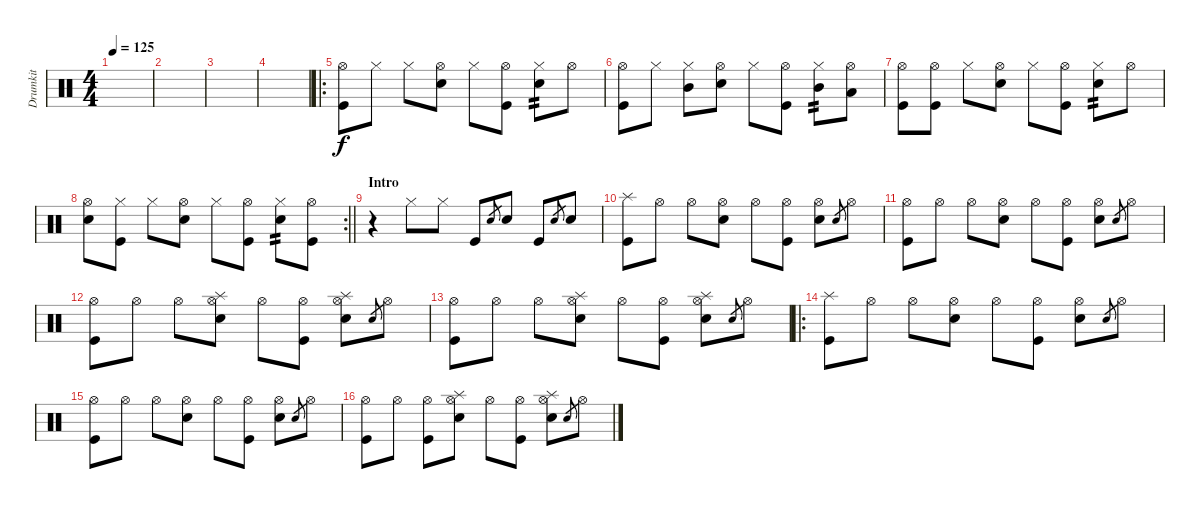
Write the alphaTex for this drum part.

\track ("Drumkit" "Drumkit") {instrument percussion}
\staff {score}
\articulation defaults
\ts (4 4)
\tempo 125
\clef neutral
\ks c
|
|
|
|
\ro
("Hi-Hat (open)" "Kick (hit)").8 "Hi-Hat (closed)".8 "Hi-Hat (closed)".8 ("Hi-Hat (open)" "Snare (hit) 2").8 "Hi-Hat (closed)".8 ("Hi-Hat (open)" "Kick (hit)").8 ("Hi-Hat (closed)" "Snare (hit) 2").8{tp 2} "Hi-Hat (open)".8 |
("Hi-Hat (open)" "Kick (hit)").8 "Hi-Hat (closed)".8 ("Hi-Hat (closed)" "Mid Tom (hit)").8 ("Hi-Hat (open)" "Snare (hit) 2").8 "Hi-Hat (closed)".8 ("Hi-Hat (open)" "Kick (hit)").8 ("Hi-Hat (closed)" "Mid Tom (hit)").8{tp 2} ("Hi-Hat (open)" "Low Tom (hit)").8 |
("Hi-Hat (open)" "Kick (hit)").8 ("Hi-Hat (open)" "Kick (hit)").8 "Hi-Hat (closed)".8 ("Hi-Hat (open)" "Snare (hit) 2").8 "Hi-Hat (closed)".8 ("Hi-Hat (open)" "Kick (hit)").8 ("Hi-Hat (closed)" "Snare (hit) 2").8{tp 2} "Hi-Hat (open)".8 |
\rc 2
\barLineRight lightlight
("Hi-Hat (open)" "Snare (hit) 2").8 ("Hi-Hat (closed)" "Kick (hit)").8 "Hi-Hat (closed)".8 ("Hi-Hat (open)" "Snare (hit) 2").8 "Hi-Hat (closed)".8 ("Hi-Hat (open)" "Kick (hit)").8 ("Hi-Hat (closed)" "Snare (hit) 2").8{tp 2} ("Hi-Hat (open)" "Kick (hit)").8 |
\section ("" "Intro")
r.4 "Hi-Hat (closed)".8 "Hi-Hat (closed)".8 "Kick (hit)".8 "Snare (hit)".8{gr} "Snare (hit) 2".8 "Kick (hit)".8 "Snare (hit)".8{gr} "Snare (hit) 2".8 |
("Splash (hit)" "Kick (hit)").8 "Hi-Hat (open)".8 "Hi-Hat (open)".8 ("Snare (hit) 2" "Hi-Hat (open)").8 "Hi-Hat (open)".8 ("Kick (hit)" "Hi-Hat (open)").8 ("Snare (hit) 2" "Hi-Hat (open)").8 "Snare (hit)".8{gr} "Hi-Hat (open)".8 |
("Kick (hit)" "Hi-Hat (open)").8 "Hi-Hat (open)".8 "Hi-Hat (open)".8 ("Snare (hit) 2" "Hi-Hat (open)").8 "Hi-Hat (open)".8 ("Kick (hit)" "Hi-Hat (open)").8 ("Snare (hit) 2" "Hi-Hat (open)").8 "Snare (hit)".8{gr} "Hi-Hat (open)".8 |
("Kick (hit)" "Hi-Hat (open)").8 "Hi-Hat (open)".8 "Hi-Hat (open)".8 ("Snare (hit) 2" "Hi-Hat (open)" "Splash (hit)").8 "Hi-Hat (open)".8 ("Kick (hit)" "Hi-Hat (open)").8 ("Snare (hit) 2" "Hi-Hat (open)" "Splash (hit)").8 "Snare (hit)".8{gr} "Hi-Hat (open)".8 |
("Kick (hit)" "Hi-Hat (open)").8 "Hi-Hat (open)".8 "Hi-Hat (open)".8 ("Snare (hit) 2" "Hi-Hat (open)" "Splash (hit)").8 "Hi-Hat (open)".8 ("Kick (hit)" "Hi-Hat (open)").8 ("Snare (hit) 2" "Hi-Hat (open)" "Splash (hit)").8 "Snare (hit)".8{gr} "Hi-Hat (open)".8 |
\ro
("Splash (hit)" "Kick (hit)").8 "Hi-Hat (open)".8 "Hi-Hat (open)".8 ("Snare (hit) 2" "Hi-Hat (open)").8 "Hi-Hat (open)".8 ("Kick (hit)" "Hi-Hat (open)").8 ("Snare (hit) 2" "Hi-Hat (open)").8 "Snare (hit)".8{gr} "Hi-Hat (open)".8 |
("Kick (hit)" "Hi-Hat (open)").8 "Hi-Hat (open)".8 "Hi-Hat (open)".8 ("Snare (hit) 2" "Hi-Hat (open)").8 "Hi-Hat (open)".8 ("Kick (hit)" "Hi-Hat (open)").8 ("Snare (hit) 2" "Hi-Hat (open)").8 "Snare (hit)".8{gr} "Hi-Hat (open)".8 |
("Kick (hit)" "Hi-Hat (open)").8 "Hi-Hat (open)".8 ("Hi-Hat (open)" "Kick (hit)").8 ("Snare (hit) 2" "Hi-Hat (open)" "Splash (hit)").8 "Hi-Hat (open)".8 ("Kick (hit)" "Hi-Hat (open)").8 ("Snare (hit) 2" "Hi-Hat (open)" "Splash (hit)").8 "Snare (hit)".8{gr} "Hi-Hat (open)".8
